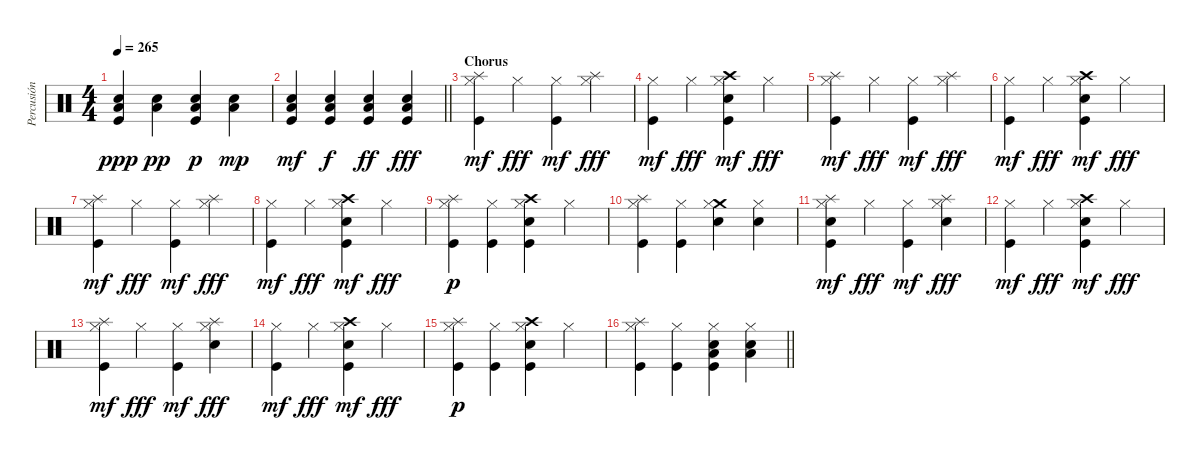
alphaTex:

\track ("Percusión" "Percusión") {instrument percussion}
\staff {score}
\articulation defaults
\ts (4 4)
\tempo 265
\clef neutral
\ks c
("Low Floor Tom (hit)" "Electric Snare (hit)" "Kick (hit)").4{dy ppp} ("Low Floor Tom (hit)" "Electric Snare (hit)").4{dy pp} ("Low Floor Tom (hit)" "Electric Snare (hit)" "Kick (hit)").4{dy p} ("Low Floor Tom (hit)" "Electric Snare (hit)").4{dy mp} |
\barLineRight lightlight
("Low Floor Tom (hit)" "Electric Snare (hit)" "Kick (hit)").4{dy mf} ("Low Floor Tom (hit)" "Electric Snare (hit)" "Kick (hit)").4{dy f} ("Low Floor Tom (hit)" "Electric Snare (hit)" "Kick (hit)").4{dy ff} ("Low Floor Tom (hit)" "Electric Snare (hit)" "Kick (hit)").4{dy fff} |
\section ("" "Chorus")
("Splash (hit)" "Hi-Hat (closed)" "Kick (hit)").4{dy mf} "Hi-Hat (closed)".4{dy fff} ("Hi-Hat (closed)" "Kick (hit)").4{dy mf} ("Splash (hit)" "Hi-Hat (closed)").4{dy fff} |
("Hi-Hat (closed)" "Kick (hit)").4{dy mf} "Hi-Hat (closed)".4{dy fff} ("Crash high (hit)" "Electric Snare (hit)" "Hi-Hat (closed)" "Kick (hit)").4{dy mf} "Hi-Hat (closed)".4{dy fff} |
("Splash (hit)" "Hi-Hat (closed)" "Kick (hit)").4{dy mf} "Hi-Hat (closed)".4{dy fff} ("Hi-Hat (closed)" "Kick (hit)").4{dy mf} ("Splash (hit)" "Hi-Hat (closed)").4{dy fff} |
("Hi-Hat (closed)" "Kick (hit)").4{dy mf} "Hi-Hat (closed)".4{dy fff} ("Crash high (hit)" "Electric Snare (hit)" "Hi-Hat (closed)" "Kick (hit)").4{dy mf} "Hi-Hat (closed)".4{dy fff} |
("Splash (hit)" "Hi-Hat (closed)" "Kick (hit)").4{dy mf} "Hi-Hat (closed)".4{dy fff} ("Hi-Hat (closed)" "Kick (hit)").4{dy mf} ("Splash (hit)" "Hi-Hat (closed)").4{dy fff} |
("Hi-Hat (closed)" "Kick (hit)").4{dy mf} "Hi-Hat (closed)".4{dy fff} ("Crash high (hit)" "Electric Snare (hit)" "Hi-Hat (closed)" "Kick (hit)").4{dy mf} "Hi-Hat (closed)".4{dy fff} |
("Splash (hit)" "Hi-Hat (closed)" "Kick (hit)").4{dy p} ("Hi-Hat (closed)" "Kick (hit)").4 ("Crash high (hit)" "Electric Snare (hit)" "Hi-Hat (closed)" "Kick (hit)").4 "Hi-Hat (closed)".4 |
("Splash (hit)" "Hi-Hat (closed)" "Kick (hit)").4 ("Hi-Hat (closed)" "Kick (hit)").4 ("Crash medium (hit)" "Electric Snare (hit)" "Hi-Hat (closed)").4 ("Electric Snare (hit)" "Hi-Hat (closed)").4 |
("Splash (hit)" "Electric Snare (hit)" "Hi-Hat (closed)" "Kick (hit)").4{dy mf} "Hi-Hat (closed)".4{dy fff} ("Hi-Hat (closed)" "Kick (hit)").4{dy mf} ("Splash (hit)" "Electric Snare (hit)" "Hi-Hat (closed)").4{dy fff} |
("Hi-Hat (closed)" "Kick (hit)").4{dy mf} "Hi-Hat (closed)".4{dy fff} ("Crash high (hit)" "Electric Snare (hit)" "Hi-Hat (closed)" "Kick (hit)").4{dy mf} "Hi-Hat (closed)".4{dy fff} |
("Splash (hit)" "Hi-Hat (closed)" "Kick (hit)").4{dy mf} "Hi-Hat (closed)".4{dy fff} ("Hi-Hat (closed)" "Kick (hit)").4{dy mf} ("Splash (hit)" "Electric Snare (hit)" "Hi-Hat (closed)").4{dy fff} |
("Hi-Hat (closed)" "Kick (hit)").4{dy mf} "Hi-Hat (closed)".4{dy fff} ("Crash high (hit)" "Electric Snare (hit)" "Hi-Hat (closed)" "Kick (hit)").4{dy mf} "Hi-Hat (closed)".4{dy fff} |
("Splash (hit)" "Hi-Hat (closed)" "Kick (hit)").4{dy p} ("Hi-Hat (closed)" "Kick (hit)").4 ("Crash high (hit)" "Electric Snare (hit)" "Hi-Hat (closed)" "Kick (hit)").4 "Hi-Hat (closed)".4 |
\barLineRight lightlight
("Splash (hit)" "Hi-Hat (closed)" "Kick (hit)").4 ("Hi-Hat (closed)" "Kick (hit)").4 ("Low Floor Tom (hit)" "Electric Snare (hit)" "Hi-Hat (closed)" "Kick (hit)").4 ("Low Floor Tom (hit)" "Electric Snare (hit)" "Hi-Hat (closed)").4
